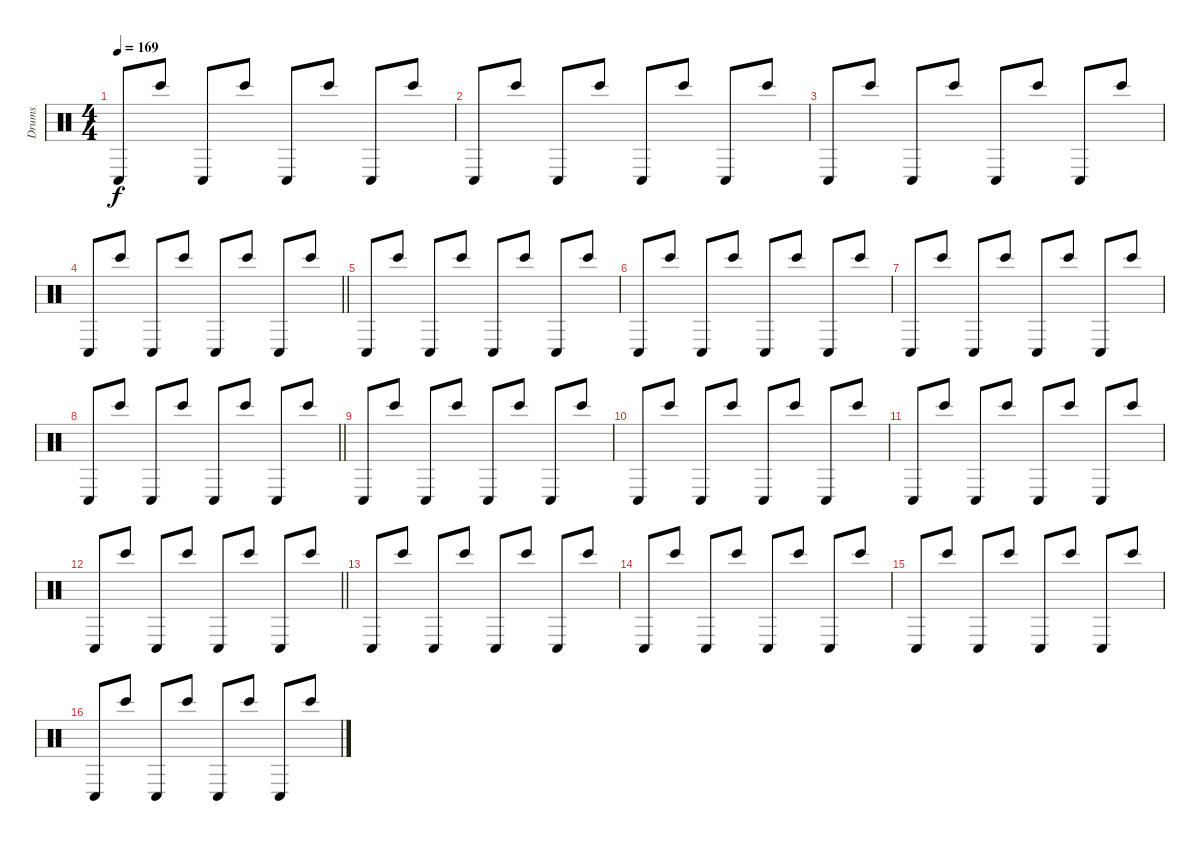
\track ("Drums" "Drums") {instrument percussion}
\staff
\articulation defaults
\ts (4 4)
\tempo 169
\clef neutral
\ks c "Conga low (hit)".8{dy f} "Bongo High (hit)".8 "Conga low (hit)".8 "Bongo High (hit)".8 "Conga low (hit)".8 "Bongo High (hit)".8 "Conga low (hit)".8 "Bongo High (hit)".8
|
"Conga low (hit)".8 "Bongo High (hit)".8 "Conga low (hit)".8 "Bongo High (hit)".8 "Conga low (hit)".8 "Bongo High (hit)".8 "Conga low (hit)".8 "Bongo High (hit)".8 |
"Conga low (hit)".8 "Bongo High (hit)".8 "Conga low (hit)".8 "Bongo High (hit)".8 "Conga low (hit)".8 "Bongo High (hit)".8 "Conga low (hit)".8 "Bongo High (hit)".8 |
\barLineRight lightlight "Conga low (hit)".8 "Bongo High (hit)".8 "Conga low (hit)".8 "Bongo High (hit)".8 "Conga low (hit)".8 "Bongo High (hit)".8 "Conga low (hit)".8 "Bongo High (hit)".8
|
"Conga low (hit)".8 "Bongo High (hit)".8 "Conga low (hit)".8 "Bongo High (hit)".8 "Conga low (hit)".8 "Bongo High (hit)".8 "Conga low (hit)".8 "Bongo High (hit)".8 |
"Conga low (hit)".8 "Bongo High (hit)".8 "Conga low (hit)".8 "Bongo High (hit)".8 "Conga low (hit)".8 "Bongo High (hit)".8 "Conga low (hit)".8 "Bongo High (hit)".8 |
"Conga low (hit)".8 "Bongo High (hit)".8 "Conga low (hit)".8 "Bongo High (hit)".8 "Conga low (hit)".8 "Bongo High (hit)".8 "Conga low (hit)".8 "Bongo High (hit)".8 |
\barLineRight lightlight "Conga low (hit)".8 "Bongo High (hit)".8 "Conga low (hit)".8 "Bongo High (hit)".8 "Conga low (hit)".8 "Bongo High (hit)".8 "Conga low (hit)".8 "Bongo High (hit)".8
|
"Conga low (hit)".8 "Bongo High (hit)".8 "Conga low (hit)".8 "Bongo High (hit)".8 "Conga low (hit)".8 "Bongo High (hit)".8 "Conga low (hit)".8 "Bongo High (hit)".8 |
"Conga low (hit)".8 "Bongo High (hit)".8 "Conga low (hit)".8 "Bongo High (hit)".8 "Conga low (hit)".8 "Bongo High (hit)".8 "Conga low (hit)".8 "Bongo High (hit)".8 |
"Conga low (hit)".8 "Bongo High (hit)".8 "Conga low (hit)".8 "Bongo High (hit)".8 "Conga low (hit)".8 "Bongo High (hit)".8 "Conga low (hit)".8 "Bongo High (hit)".8 |
\barLineRight lightlight "Conga low (hit)".8 "Bongo High (hit)".8 "Conga low (hit)".8 "Bongo High (hit)".8 "Conga low (hit)".8 "Bongo High (hit)".8 "Conga low (hit)".8 "Bongo High (hit)".8
|
"Conga low (hit)".8 "Bongo High (hit)".8 "Conga low (hit)".8 "Bongo High (hit)".8 "Conga low (hit)".8 "Bongo High (hit)".8 "Conga low (hit)".8 "Bongo High (hit)".8 |
"Conga low (hit)".8 "Bongo High (hit)".8 "Conga low (hit)".8 "Bongo High (hit)".8 "Conga low (hit)".8 "Bongo High (hit)".8 "Conga low (hit)".8 "Bongo High (hit)".8 |
"Conga low (hit)".8 "Bongo High (hit)".8 "Conga low (hit)".8 "Bongo High (hit)".8 "Conga low (hit)".8 "Bongo High (hit)".8 "Conga low (hit)".8 "Bongo High (hit)".8 |
"Conga low (hit)".8 "Bongo High (hit)".8 "Conga low (hit)".8 "Bongo High (hit)".8 "Conga low (hit)".8 "Bongo High (hit)".8 "Conga low (hit)".8 "Bongo High (hit)".8
